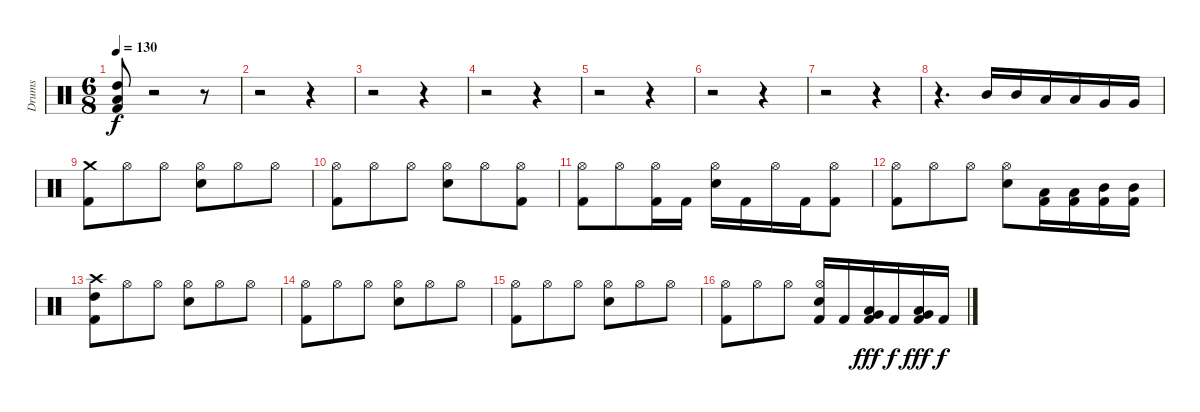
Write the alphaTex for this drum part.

\track ("Drums" "Drums") {instrument percussion}
\staff {score}
\articulation defaults
\ts (6 8)
\tempo 130
\clef neutral
\ks c
("Kick (hit) 2" "Low Tom (hit)" "High Tom (hit)").8{dy f} r.2 r.8 |
r.2 r.4 |
r.2 r.4 |
r.2 r.4 |
r.2 r.4 |
r.2 r.4 |
r.2 r.4 |
r.4{d} "Mid Tom (hit)".16 "Mid Tom (hit)".16 "Low Tom (hit)".16 "Low Tom (hit)".16 "Very Low Tom (hit)".16 "Very Low Tom (hit)".16 |
("Kick (hit) 2" "Crash medium (hit)").8 "Hi-Hat (open)".8 "Hi-Hat (open)".8 ("Electric Snare (hit)" "Hi-Hat (open)").8 "Hi-Hat (open)".8 "Hi-Hat (open)".8 |
("Kick (hit) 2" "Hi-Hat (open)").8 "Hi-Hat (open)".8 "Hi-Hat (open)".8 ("Electric Snare (hit)" "Hi-Hat (open)").8 "Hi-Hat (open)".8 ("Kick (hit) 2" "Hi-Hat (open)").8 |
("Kick (hit) 2" "Hi-Hat (open)").8 "Hi-Hat (open)".8 ("Kick (hit) 2" "Hi-Hat (open)").16 "Kick (hit) 2".16 ("Electric Snare (hit)" "Hi-Hat (open)").16 "Kick (hit) 2".16 "Hi-Hat (open)".16 "Kick (hit) 2".16 ("Kick (hit) 2" "Hi-Hat (open)").8 |
("Kick (hit) 2" "Hi-Hat (open)").8 "Hi-Hat (open)".8 "Hi-Hat (open)".8 ("Electric Snare (hit)" "Hi-Hat (open)").8 ("Kick (hit) 2" "Low Tom (hit)").16 ("Kick (hit) 2" "Low Tom (hit)").16 ("Kick (hit) 2" "Mid Tom (hit)").16 ("Kick (hit) 2" "Mid Tom (hit)").16 |
("Kick (hit) 2" "High Tom (hit)" "Crash high (hit)").8 "Hi-Hat (open)".8 "Hi-Hat (open)".8 ("Electric Snare (hit)" "Hi-Hat (open)").8 "Hi-Hat (open)".8 "Hi-Hat (open)".8 |
("Kick (hit) 2" "Hi-Hat (open)").8 "Hi-Hat (open)".8 "Hi-Hat (open)".8 ("Electric Snare (hit)" "Hi-Hat (open)").8 "Hi-Hat (open)".8 "Hi-Hat (open)".8 |
("Kick (hit) 2" "Hi-Hat (open)").8 "Hi-Hat (open)".8 "Hi-Hat (open)".8 ("Electric Snare (hit)" "Hi-Hat (open)").8 "Hi-Hat (open)".8 "Hi-Hat (open)".8 |
("Kick (hit) 2" "Hi-Hat (open)").8 "Hi-Hat (open)".8 "Hi-Hat (open)".8 ("Kick (hit) 2" "Electric Snare (hit)" "Hi-Hat (open)").16 "Kick (hit) 2".16 ("Kick (hit) 2" "Low Tom (hit)" "Very Low Tom (hit)").16{dy fff} "Kick (hit) 2".16{dy f} ("Kick (hit) 2" "Low Tom (hit)" "Very Low Tom (hit)").16{dy fff} "Kick (hit) 2".16{dy f}
